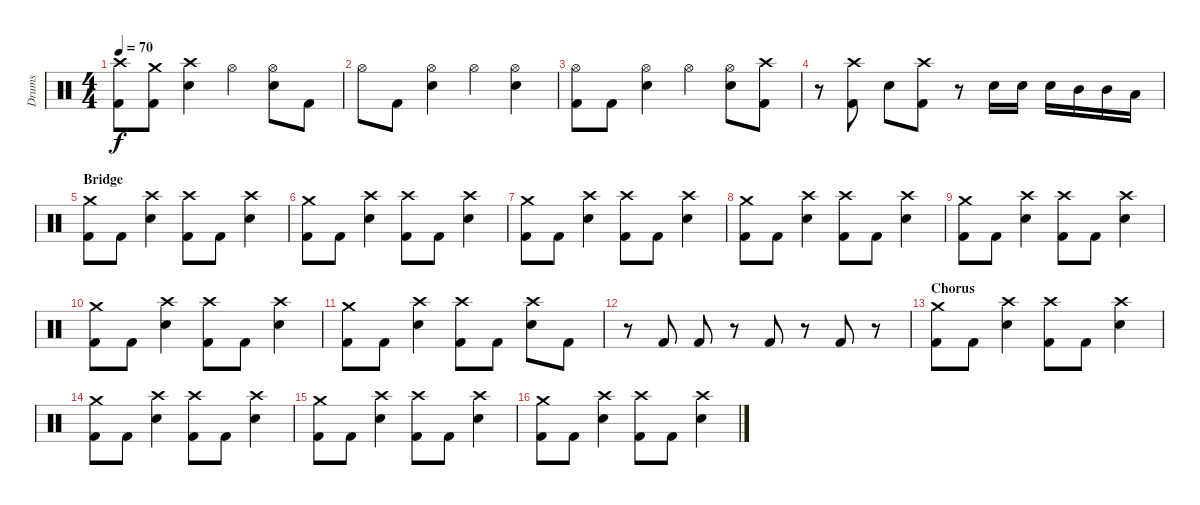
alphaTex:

\track ("Drums" "Drums") {instrument percussion}
\staff {score}
\articulation defaults
\ts (4 4)
\tempo 70
\clef neutral
\ks c
("Crash high (hit)" "Kick (hit) 2").8{dy f} ("Crash medium (hit)" "Kick (hit) 2").8 ("Crash high (hit)" "Snare (hit) 2").4 "Hi-Hat (open)".4 ("Hi-Hat (open)" "Snare (hit) 2").8 "Kick (hit) 2".8 |
"Hi-Hat (open)".8 "Kick (hit) 2".8 ("Hi-Hat (open)" "Snare (hit) 2").4 "Hi-Hat (open)".4 ("Hi-Hat (open)" "Snare (hit) 2").4 |
("Hi-Hat (open)" "Kick (hit) 2").8 "Kick (hit) 2".8 ("Hi-Hat (open)" "Snare (hit) 2").4 "Hi-Hat (open)".4 ("Hi-Hat (open)" "Snare (hit) 2").8 ("Crash high (hit)" "Kick (hit) 2").8 |
r.8 ("Crash high (hit)" "Kick (hit) 2").8 "Snare (hit) 2".8 ("Crash high (hit)" "Kick (hit) 2").8 r.8 "Snare (hit) 2".16 "Snare (hit) 2".16 "Snare (hit) 2".16 "Mid Tom (hit)".16 "Mid Tom (hit)".16 "Low Tom (hit)".16 |
\section ("" "Bridge")
("Crash medium (hit)" "Kick (hit) 2").8 "Kick (hit) 2".8 ("Crash high (hit)" "Snare (hit) 2").4 ("Crash high (hit)" "Kick (hit) 2").8 "Kick (hit) 2".8 ("Crash high (hit)" "Snare (hit) 2").4 |
("Crash medium (hit)" "Kick (hit) 2").8 "Kick (hit) 2".8 ("Crash high (hit)" "Snare (hit) 2").4 ("Crash high (hit)" "Kick (hit) 2").8 "Kick (hit) 2".8 ("Crash high (hit)" "Snare (hit) 2").4 |
("Crash medium (hit)" "Kick (hit) 2").8 "Kick (hit) 2".8 ("Crash high (hit)" "Snare (hit) 2").4 ("Crash high (hit)" "Kick (hit) 2").8 "Kick (hit) 2".8 ("Crash high (hit)" "Snare (hit) 2").4 |
("Crash medium (hit)" "Kick (hit) 2").8 "Kick (hit) 2".8 ("Crash high (hit)" "Snare (hit) 2").4 ("Crash high (hit)" "Kick (hit) 2").8 "Kick (hit) 2".8 ("Crash high (hit)" "Snare (hit) 2").4 |
("Crash medium (hit)" "Kick (hit) 2").8 "Kick (hit) 2".8 ("Crash high (hit)" "Snare (hit) 2").4 ("Crash high (hit)" "Kick (hit) 2").8 "Kick (hit) 2".8 ("Crash high (hit)" "Snare (hit) 2").4 |
("Crash medium (hit)" "Kick (hit) 2").8 "Kick (hit) 2".8 ("Crash high (hit)" "Snare (hit) 2").4 ("Crash high (hit)" "Kick (hit) 2").8 "Kick (hit) 2".8 ("Crash high (hit)" "Snare (hit) 2").4 |
("Crash medium (hit)" "Kick (hit) 2").8 "Kick (hit) 2".8 ("Crash high (hit)" "Snare (hit) 2").4 ("Crash high (hit)" "Kick (hit) 2").8 "Kick (hit) 2".8 ("Crash high (hit)" "Snare (hit) 2").8 "Kick (hit) 2".8 |
r.8 "Kick (hit) 2".8 "Kick (hit) 2".8 r.8 "Kick (hit) 2".8 r.8 "Kick (hit) 2".8 r.8 |
\section ("" "Chorus")
("Crash medium (hit)" "Kick (hit) 2").8 "Kick (hit) 2".8 ("Crash high (hit)" "Snare (hit) 2").4 ("Crash high (hit)" "Kick (hit) 2").8 "Kick (hit) 2".8 ("Crash high (hit)" "Snare (hit) 2").4 |
("Crash medium (hit)" "Kick (hit) 2").8 "Kick (hit) 2".8 ("Crash high (hit)" "Snare (hit) 2").4 ("Crash high (hit)" "Kick (hit) 2").8 "Kick (hit) 2".8 ("Crash high (hit)" "Snare (hit) 2").4 |
("Crash medium (hit)" "Kick (hit) 2").8 "Kick (hit) 2".8 ("Crash high (hit)" "Snare (hit) 2").4 ("Crash high (hit)" "Kick (hit) 2").8 "Kick (hit) 2".8 ("Crash high (hit)" "Snare (hit) 2").4 |
("Crash medium (hit)" "Kick (hit) 2").8 "Kick (hit) 2".8 ("Crash high (hit)" "Snare (hit) 2").4 ("Crash high (hit)" "Kick (hit) 2").8 "Kick (hit) 2".8 ("Crash high (hit)" "Snare (hit) 2").4
